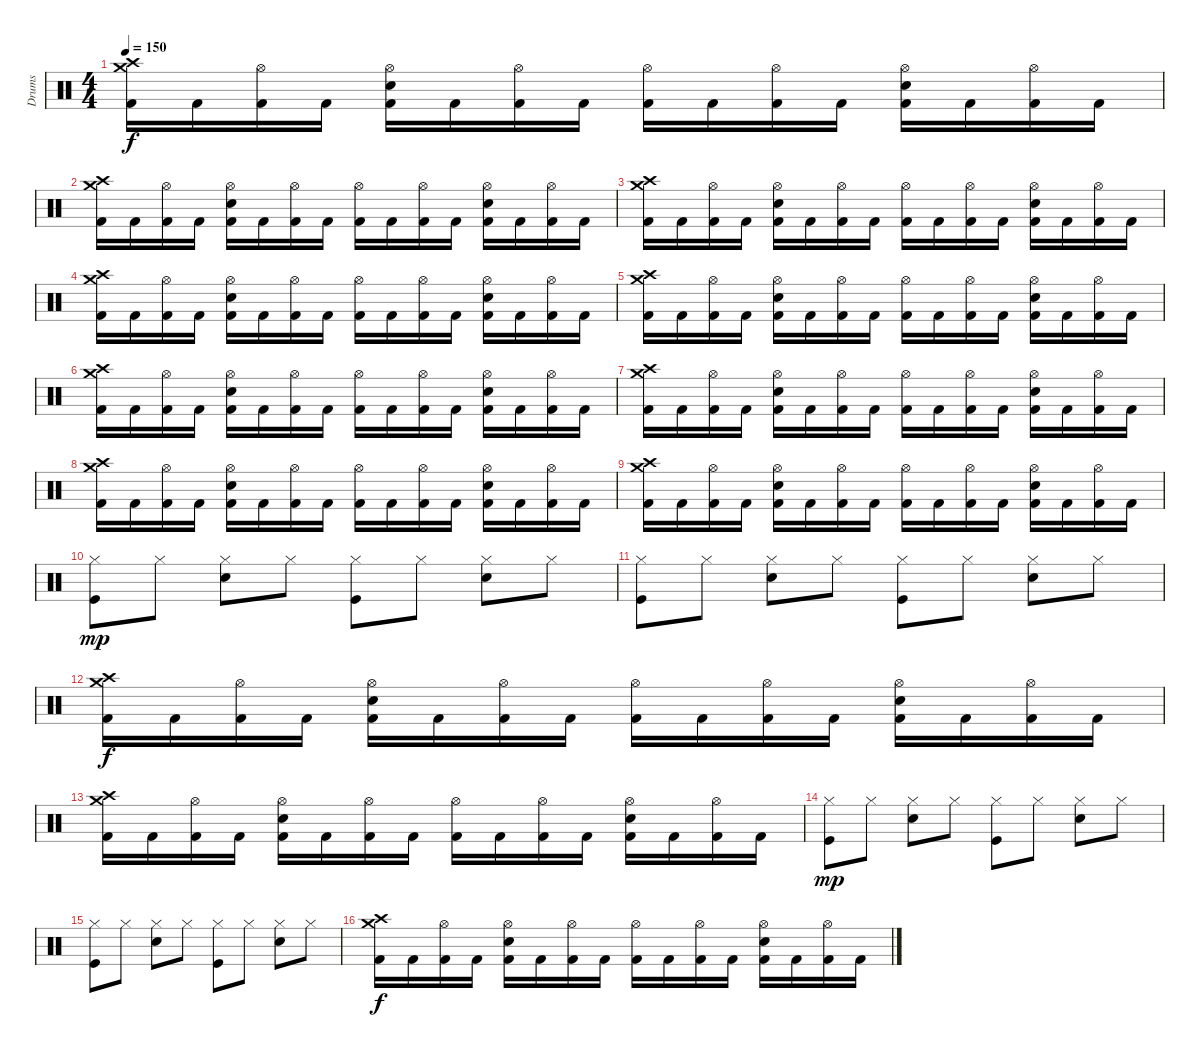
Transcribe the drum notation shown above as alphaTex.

\track ("Drums" "Drums") {instrument percussion}
\staff {score}
\articulation defaults
\ts (4 4)
\tempo 150
\clef neutral
\ks c
("Crash high (hit)" "Crash medium (hit)" "Kick (hit) 2").16{dy f} "Kick (hit) 2".16 ("Hi-Hat (open)" "Kick (hit) 2").16 "Kick (hit) 2".16 ("Hi-Hat (open)" "Electric Snare (hit)" "Kick (hit) 2").16 "Kick (hit) 2".16 ("Hi-Hat (open)" "Kick (hit) 2").16 "Kick (hit) 2".16 ("Hi-Hat (open)" "Kick (hit) 2").16 "Kick (hit) 2".16 ("Hi-Hat (open)" "Kick (hit) 2").16 "Kick (hit) 2".16 ("Hi-Hat (open)" "Electric Snare (hit)" "Kick (hit) 2").16 "Kick (hit) 2".16 ("Hi-Hat (open)" "Kick (hit) 2").16 "Kick (hit) 2".16 |
("Crash high (hit)" "Crash medium (hit)" "Kick (hit) 2").16 "Kick (hit) 2".16 ("Hi-Hat (open)" "Kick (hit) 2").16 "Kick (hit) 2".16 ("Hi-Hat (open)" "Electric Snare (hit)" "Kick (hit) 2").16 "Kick (hit) 2".16 ("Hi-Hat (open)" "Kick (hit) 2").16 "Kick (hit) 2".16 ("Hi-Hat (open)" "Kick (hit) 2").16 "Kick (hit) 2".16 ("Hi-Hat (open)" "Kick (hit) 2").16 "Kick (hit) 2".16 ("Hi-Hat (open)" "Electric Snare (hit)" "Kick (hit) 2").16 "Kick (hit) 2".16 ("Hi-Hat (open)" "Kick (hit) 2").16 "Kick (hit) 2".16 |
("Crash high (hit)" "Crash medium (hit)" "Kick (hit) 2").16 "Kick (hit) 2".16 ("Hi-Hat (open)" "Kick (hit) 2").16 "Kick (hit) 2".16 ("Hi-Hat (open)" "Electric Snare (hit)" "Kick (hit) 2").16 "Kick (hit) 2".16 ("Hi-Hat (open)" "Kick (hit) 2").16 "Kick (hit) 2".16 ("Hi-Hat (open)" "Kick (hit) 2").16 "Kick (hit) 2".16 ("Hi-Hat (open)" "Kick (hit) 2").16 "Kick (hit) 2".16 ("Hi-Hat (open)" "Electric Snare (hit)" "Kick (hit) 2").16 "Kick (hit) 2".16 ("Hi-Hat (open)" "Kick (hit) 2").16 "Kick (hit) 2".16 |
("Crash high (hit)" "Crash medium (hit)" "Kick (hit) 2").16 "Kick (hit) 2".16 ("Hi-Hat (open)" "Kick (hit) 2").16 "Kick (hit) 2".16 ("Hi-Hat (open)" "Electric Snare (hit)" "Kick (hit) 2").16 "Kick (hit) 2".16 ("Hi-Hat (open)" "Kick (hit) 2").16 "Kick (hit) 2".16 ("Hi-Hat (open)" "Kick (hit) 2").16 "Kick (hit) 2".16 ("Hi-Hat (open)" "Kick (hit) 2").16 "Kick (hit) 2".16 ("Hi-Hat (open)" "Electric Snare (hit)" "Kick (hit) 2").16 "Kick (hit) 2".16 ("Hi-Hat (open)" "Kick (hit) 2").16 "Kick (hit) 2".16 |
("Crash high (hit)" "Crash medium (hit)" "Kick (hit) 2").16 "Kick (hit) 2".16 ("Hi-Hat (open)" "Kick (hit) 2").16 "Kick (hit) 2".16 ("Hi-Hat (open)" "Electric Snare (hit)" "Kick (hit) 2").16 "Kick (hit) 2".16 ("Hi-Hat (open)" "Kick (hit) 2").16 "Kick (hit) 2".16 ("Hi-Hat (open)" "Kick (hit) 2").16 "Kick (hit) 2".16 ("Hi-Hat (open)" "Kick (hit) 2").16 "Kick (hit) 2".16 ("Hi-Hat (open)" "Electric Snare (hit)" "Kick (hit) 2").16 "Kick (hit) 2".16 ("Hi-Hat (open)" "Kick (hit) 2").16 "Kick (hit) 2".16 |
("Crash high (hit)" "Crash medium (hit)" "Kick (hit) 2").16 "Kick (hit) 2".16 ("Hi-Hat (open)" "Kick (hit) 2").16 "Kick (hit) 2".16 ("Hi-Hat (open)" "Electric Snare (hit)" "Kick (hit) 2").16 "Kick (hit) 2".16 ("Hi-Hat (open)" "Kick (hit) 2").16 "Kick (hit) 2".16 ("Hi-Hat (open)" "Kick (hit) 2").16 "Kick (hit) 2".16 ("Hi-Hat (open)" "Kick (hit) 2").16 "Kick (hit) 2".16 ("Hi-Hat (open)" "Electric Snare (hit)" "Kick (hit) 2").16 "Kick (hit) 2".16 ("Hi-Hat (open)" "Kick (hit) 2").16 "Kick (hit) 2".16 |
("Crash high (hit)" "Crash medium (hit)" "Kick (hit) 2").16 "Kick (hit) 2".16 ("Hi-Hat (open)" "Kick (hit) 2").16 "Kick (hit) 2".16 ("Hi-Hat (open)" "Electric Snare (hit)" "Kick (hit) 2").16 "Kick (hit) 2".16 ("Hi-Hat (open)" "Kick (hit) 2").16 "Kick (hit) 2".16 ("Hi-Hat (open)" "Kick (hit) 2").16 "Kick (hit) 2".16 ("Hi-Hat (open)" "Kick (hit) 2").16 "Kick (hit) 2".16 ("Hi-Hat (open)" "Electric Snare (hit)" "Kick (hit) 2").16 "Kick (hit) 2".16 ("Hi-Hat (open)" "Kick (hit) 2").16 "Kick (hit) 2".16 |
("Crash high (hit)" "Crash medium (hit)" "Kick (hit) 2").16 "Kick (hit) 2".16 ("Hi-Hat (open)" "Kick (hit) 2").16 "Kick (hit) 2".16 ("Hi-Hat (open)" "Electric Snare (hit)" "Kick (hit) 2").16 "Kick (hit) 2".16 ("Hi-Hat (open)" "Kick (hit) 2").16 "Kick (hit) 2".16 ("Hi-Hat (open)" "Kick (hit) 2").16 "Kick (hit) 2".16 ("Hi-Hat (open)" "Kick (hit) 2").16 "Kick (hit) 2".16 ("Hi-Hat (open)" "Electric Snare (hit)" "Kick (hit) 2").16 "Kick (hit) 2".16 ("Hi-Hat (open)" "Kick (hit) 2").16 "Kick (hit) 2".16 |
("Crash high (hit)" "Crash medium (hit)" "Kick (hit) 2").16 "Kick (hit) 2".16 ("Hi-Hat (open)" "Kick (hit) 2").16 "Kick (hit) 2".16 ("Hi-Hat (open)" "Electric Snare (hit)" "Kick (hit) 2").16 "Kick (hit) 2".16 ("Hi-Hat (open)" "Kick (hit) 2").16 "Kick (hit) 2".16 ("Hi-Hat (open)" "Kick (hit) 2").16 "Kick (hit) 2".16 ("Hi-Hat (open)" "Kick (hit) 2").16 "Kick (hit) 2".16 ("Hi-Hat (open)" "Electric Snare (hit)" "Kick (hit) 2").16 "Kick (hit) 2".16 ("Hi-Hat (open)" "Kick (hit) 2").16 "Kick (hit) 2".16 |
("Kick (hit)" "Hi-Hat (closed)").8{dy mp} "Hi-Hat (closed)".8 ("Snare (hit) 2" "Hi-Hat (closed)").8 "Hi-Hat (closed)".8 ("Kick (hit)" "Hi-Hat (closed)").8 "Hi-Hat (closed)".8 ("Snare (hit) 2" "Hi-Hat (closed)").8 "Hi-Hat (closed)".8 |
("Kick (hit)" "Hi-Hat (closed)").8 "Hi-Hat (closed)".8 ("Snare (hit) 2" "Hi-Hat (closed)").8 "Hi-Hat (closed)".8 ("Kick (hit)" "Hi-Hat (closed)").8 "Hi-Hat (closed)".8 ("Snare (hit) 2" "Hi-Hat (closed)").8 "Hi-Hat (closed)".8 |
("Crash high (hit)" "Crash medium (hit)" "Kick (hit) 2").16{dy f} "Kick (hit) 2".16 ("Hi-Hat (open)" "Kick (hit) 2").16 "Kick (hit) 2".16 ("Hi-Hat (open)" "Electric Snare (hit)" "Kick (hit) 2").16 "Kick (hit) 2".16 ("Hi-Hat (open)" "Kick (hit) 2").16 "Kick (hit) 2".16 ("Hi-Hat (open)" "Kick (hit) 2").16 "Kick (hit) 2".16 ("Hi-Hat (open)" "Kick (hit) 2").16 "Kick (hit) 2".16 ("Hi-Hat (open)" "Electric Snare (hit)" "Kick (hit) 2").16 "Kick (hit) 2".16 ("Hi-Hat (open)" "Kick (hit) 2").16 "Kick (hit) 2".16 |
("Crash high (hit)" "Crash medium (hit)" "Kick (hit) 2").16 "Kick (hit) 2".16 ("Hi-Hat (open)" "Kick (hit) 2").16 "Kick (hit) 2".16 ("Hi-Hat (open)" "Electric Snare (hit)" "Kick (hit) 2").16 "Kick (hit) 2".16 ("Hi-Hat (open)" "Kick (hit) 2").16 "Kick (hit) 2".16 ("Hi-Hat (open)" "Kick (hit) 2").16 "Kick (hit) 2".16 ("Hi-Hat (open)" "Kick (hit) 2").16 "Kick (hit) 2".16 ("Hi-Hat (open)" "Electric Snare (hit)" "Kick (hit) 2").16 "Kick (hit) 2".16 ("Hi-Hat (open)" "Kick (hit) 2").16 "Kick (hit) 2".16 |
("Kick (hit)" "Hi-Hat (closed)").8{dy mp} "Hi-Hat (closed)".8 ("Snare (hit) 2" "Hi-Hat (closed)").8 "Hi-Hat (closed)".8 ("Kick (hit)" "Hi-Hat (closed)").8 "Hi-Hat (closed)".8 ("Snare (hit) 2" "Hi-Hat (closed)").8 "Hi-Hat (closed)".8 |
("Kick (hit)" "Hi-Hat (closed)").8 "Hi-Hat (closed)".8 ("Snare (hit) 2" "Hi-Hat (closed)").8 "Hi-Hat (closed)".8 ("Kick (hit)" "Hi-Hat (closed)").8 "Hi-Hat (closed)".8 ("Snare (hit) 2" "Hi-Hat (closed)").8 "Hi-Hat (closed)".8 |
("Crash high (hit)" "Crash medium (hit)" "Kick (hit) 2").16{dy f} "Kick (hit) 2".16 ("Hi-Hat (open)" "Kick (hit) 2").16 "Kick (hit) 2".16 ("Hi-Hat (open)" "Electric Snare (hit)" "Kick (hit) 2").16 "Kick (hit) 2".16 ("Hi-Hat (open)" "Kick (hit) 2").16 "Kick (hit) 2".16 ("Hi-Hat (open)" "Kick (hit) 2").16 "Kick (hit) 2".16 ("Hi-Hat (open)" "Kick (hit) 2").16 "Kick (hit) 2".16 ("Hi-Hat (open)" "Electric Snare (hit)" "Kick (hit) 2").16 "Kick (hit) 2".16 ("Hi-Hat (open)" "Kick (hit) 2").16 "Kick (hit) 2".16
